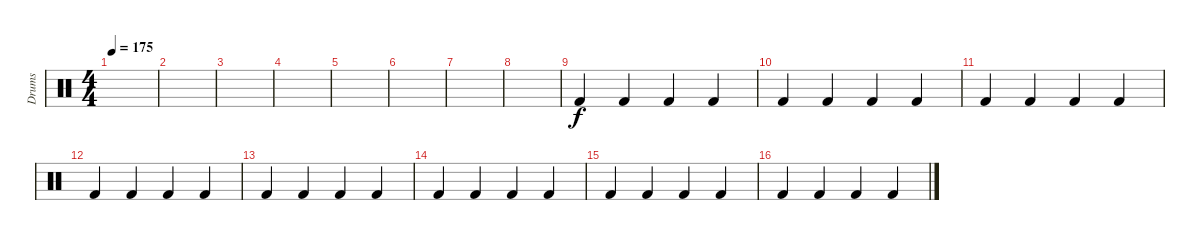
\track ("Drums" "Drums") {instrument percussion}
\staff {score}
\articulation defaults
\ts (4 4)
\tempo 175
\clef neutral
\ks c
|
|
|
|
|
|
|
|
"Kick (hit) 2".4 "Kick (hit) 2".4 "Kick (hit) 2".4 "Kick (hit) 2".4 |
"Kick (hit) 2".4 "Kick (hit) 2".4 "Kick (hit) 2".4 "Kick (hit) 2".4 |
"Kick (hit) 2".4 "Kick (hit) 2".4 "Kick (hit) 2".4 "Kick (hit) 2".4 |
"Kick (hit) 2".4 "Kick (hit) 2".4 "Kick (hit) 2".4 "Kick (hit) 2".4 |
"Kick (hit) 2".4 "Kick (hit) 2".4 "Kick (hit) 2".4 "Kick (hit) 2".4 |
"Kick (hit) 2".4 "Kick (hit) 2".4 "Kick (hit) 2".4 "Kick (hit) 2".4 |
"Kick (hit) 2".4 "Kick (hit) 2".4 "Kick (hit) 2".4 "Kick (hit) 2".4 |
"Kick (hit) 2".4 "Kick (hit) 2".4 "Kick (hit) 2".4 "Kick (hit) 2".4
